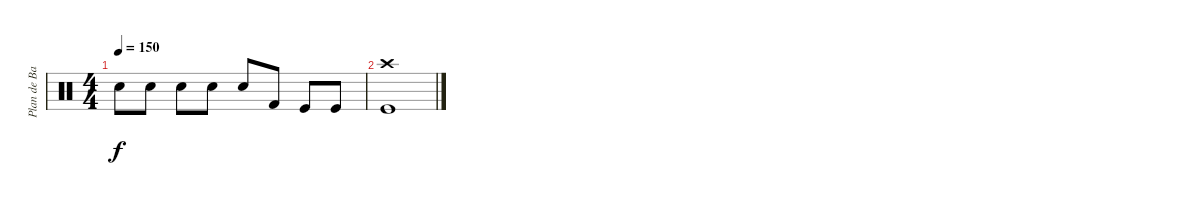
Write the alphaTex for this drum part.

\track ("Plan de Batterie" "Plan de Ba") {instrument percussion}
\staff {score}
\articulation defaults
\ts (4 4)
\tempo 150
\clef neutral
\ks c "Electric Snare (hit)".8{dy f} "Electric Snare (hit)".8 "Electric Snare (hit)".8 "Electric Snare (hit)".8 "Snare (hit) 2".8 "Kick (hit) 2".8 "Kick (hit)".8 "Kick (hit)".8
|
("Crash high (hit)" "Kick (hit)").1
